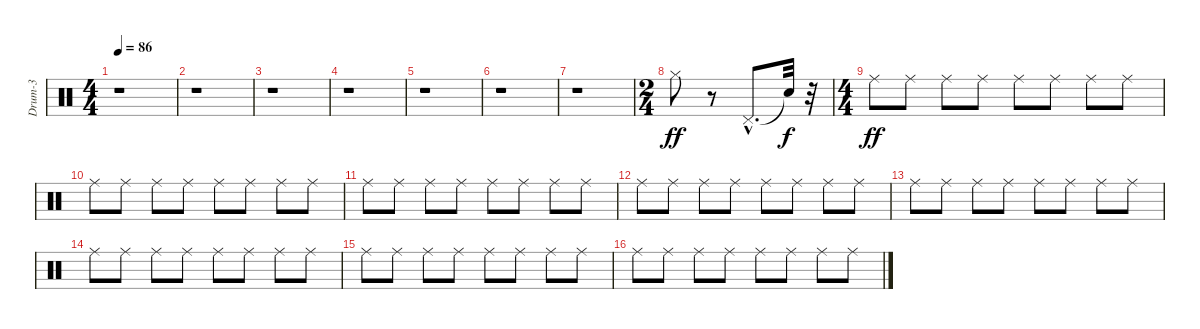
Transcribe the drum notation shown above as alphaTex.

\track ("Drum-3" "Drum-3") {instrument percussion}
\staff {score}
\articulation defaults
\ts (4 4)
\tempo 86
\clef neutral
\ks c
r.1{dy ff} |
r.1 |
r.1 |
r.1 |
r.1 |
r.1 |
r.1 |
\ts (2 4)
"Hi-Hat (closed)".8 r.8 "Pedal Hi-Hat (hit)"{hac}.8{d} "Snare (hit)"{t}.32{dy f} r.32 |
\ts (4 4)
"Ride (middle)".8{dy ff} "Ride (middle)".8 "Ride (middle)".8 "Ride (middle)".8 "Ride (middle)".8 "Ride (middle)".8 "Ride (middle)".8 "Ride (middle)".8 |
"Ride (middle)".8 "Ride (middle)".8 "Ride (middle)".8 "Ride (middle)".8 "Ride (middle)".8 "Ride (middle)".8 "Ride (middle)".8 "Ride (middle)".8 |
"Ride (middle)".8 "Ride (middle)".8 "Ride (middle)".8 "Ride (middle)".8 "Ride (middle)".8 "Ride (middle)".8 "Ride (middle)".8 "Ride (middle)".8 |
"Ride (middle)".8 "Ride (middle)".8 "Ride (middle)".8 "Ride (middle)".8 "Ride (middle)".8 "Ride (middle)".8 "Ride (middle)".8 "Ride (middle)".8 |
"Ride (middle)".8 "Ride (middle)".8 "Ride (middle)".8 "Ride (middle)".8 "Ride (middle)".8 "Ride (middle)".8 "Ride (middle)".8 "Ride (middle)".8 |
"Ride (middle)".8 "Ride (middle)".8 "Ride (middle)".8 "Ride (middle)".8 "Ride (middle)".8 "Ride (middle)".8 "Ride (middle)".8 "Ride (middle)".8 |
"Ride (middle)".8 "Ride (middle)".8 "Ride (middle)".8 "Ride (middle)".8 "Ride (middle)".8 "Ride (middle)".8 "Ride (middle)".8 "Ride (middle)".8 |
"Ride (middle)".8 "Ride (middle)".8 "Ride (middle)".8 "Ride (middle)".8 "Ride (middle)".8 "Ride (middle)".8 "Ride (middle)".8 "Ride (middle)".8
